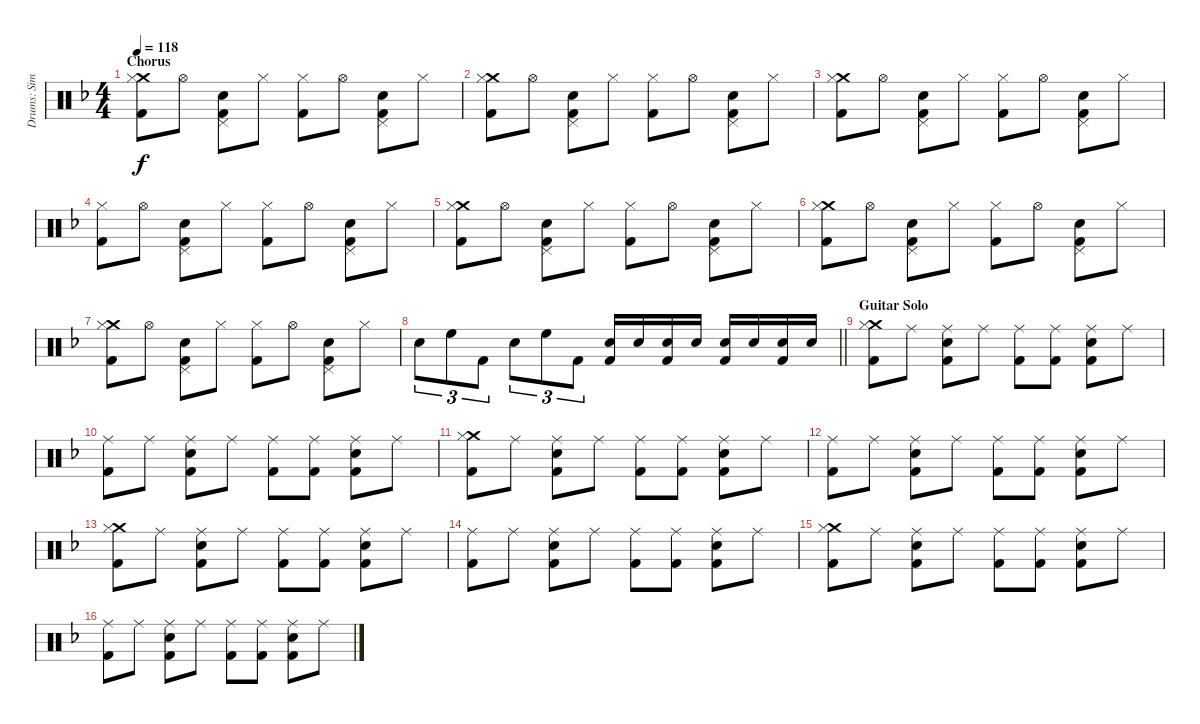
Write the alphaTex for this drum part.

\track ("Drums: Simon Kirke" "Drums: Sim") {instrument percussion}
\staff {score}
\articulation defaults
\ts (4 4)
\section ("" "Chorus")
\tempo 118
\clef neutral
\ks f
("Crash medium (hit)" "Hi-Hat (closed)" "Kick (hit) 2").8{dy f} "Hi-Hat (open)".8 ("Pedal Hi-Hat (hit)" "Snare (hit) 2" "Kick (hit) 2").8 "Hi-Hat (closed)".8 ("Hi-Hat (closed)" "Kick (hit) 2").8 "Hi-Hat (open)".8 ("Pedal Hi-Hat (hit)" "Snare (hit) 2" "Kick (hit) 2").8 "Hi-Hat (closed)".8 |
("Crash medium (hit)" "Hi-Hat (closed)" "Kick (hit) 2").8 "Hi-Hat (open)".8 ("Pedal Hi-Hat (hit)" "Snare (hit) 2" "Kick (hit) 2").8 "Hi-Hat (closed)".8 ("Hi-Hat (closed)" "Kick (hit) 2").8 "Hi-Hat (open)".8 ("Pedal Hi-Hat (hit)" "Snare (hit) 2" "Kick (hit) 2").8 "Hi-Hat (closed)".8 |
("Crash medium (hit)" "Hi-Hat (closed)" "Kick (hit) 2").8 "Hi-Hat (open)".8 ("Pedal Hi-Hat (hit)" "Snare (hit) 2" "Kick (hit) 2").8 "Hi-Hat (closed)".8 ("Hi-Hat (closed)" "Kick (hit) 2").8 "Hi-Hat (open)".8 ("Pedal Hi-Hat (hit)" "Snare (hit) 2" "Kick (hit) 2").8 "Hi-Hat (closed)".8 |
("Hi-Hat (closed)" "Kick (hit) 2").8 "Hi-Hat (open)".8 ("Pedal Hi-Hat (hit)" "Snare (hit) 2" "Kick (hit) 2").8 "Hi-Hat (closed)".8 ("Hi-Hat (closed)" "Kick (hit) 2").8 "Hi-Hat (open)".8 ("Pedal Hi-Hat (hit)" "Snare (hit) 2" "Kick (hit) 2").8 "Hi-Hat (closed)".8 |
("Crash medium (hit)" "Hi-Hat (closed)" "Kick (hit) 2").8 "Hi-Hat (open)".8 ("Pedal Hi-Hat (hit)" "Snare (hit) 2" "Kick (hit) 2").8 "Hi-Hat (closed)".8 ("Hi-Hat (closed)" "Kick (hit) 2").8 "Hi-Hat (open)".8 ("Pedal Hi-Hat (hit)" "Snare (hit) 2" "Kick (hit) 2").8 "Hi-Hat (closed)".8 |
("Crash medium (hit)" "Hi-Hat (closed)" "Kick (hit) 2").8 "Hi-Hat (open)".8 ("Pedal Hi-Hat (hit)" "Snare (hit) 2" "Kick (hit) 2").8 "Hi-Hat (closed)".8 ("Hi-Hat (closed)" "Kick (hit) 2").8 "Hi-Hat (open)".8 ("Pedal Hi-Hat (hit)" "Snare (hit) 2" "Kick (hit) 2").8 "Hi-Hat (closed)".8 |
("Crash medium (hit)" "Hi-Hat (closed)" "Kick (hit) 2").8 "Hi-Hat (open)".8 ("Pedal Hi-Hat (hit)" "Snare (hit) 2" "Kick (hit) 2").8 "Hi-Hat (closed)".8 ("Hi-Hat (closed)" "Kick (hit) 2").8 "Hi-Hat (open)".8 ("Pedal Hi-Hat (hit)" "Snare (hit) 2" "Kick (hit) 2").8 "Hi-Hat (closed)".8 |
\barLineRight lightlight "Snare (hit) 2".8{tu (3 2)} "High Floor Tom (hit)".8{tu (3 2)} "Kick (hit) 2".8{tu (3 2)} "Snare (hit) 2".8{tu (3 2)} "High Floor Tom (hit)".8{tu (3 2)} "Kick (hit) 2".8{tu (3 2)}
("Snare (hit) 2" "Kick (hit) 2").16 "Snare (hit) 2".16 ("Snare (hit) 2" "Kick (hit) 2").16 "Snare (hit) 2".16 ("Snare (hit) 2" "Kick (hit) 2").16 "Snare (hit) 2".16 ("Snare (hit) 2" "Kick (hit) 2").16 "Snare (hit) 2".16 |
\section ("" "Guitar Solo")
("Crash medium (hit)" "Hi-Hat (closed)" "Kick (hit) 2").8 "Ride (middle)".8 ("Ride (middle)" "Snare (hit) 2" "Kick (hit) 2").8 "Ride (middle)".8 ("Ride (middle)" "Kick (hit) 2").8 ("Ride (middle)" "Kick (hit) 2").8 ("Ride (middle)" "Snare (hit) 2" "Kick (hit) 2").8 "Ride (middle)".8 |
("Ride (middle)" "Kick (hit) 2").8 "Ride (middle)".8 ("Ride (middle)" "Snare (hit) 2" "Kick (hit) 2").8 "Ride (middle)".8 ("Ride (middle)" "Kick (hit) 2").8 ("Ride (middle)" "Kick (hit) 2").8 ("Ride (middle)" "Snare (hit) 2" "Kick (hit) 2").8 "Ride (middle)".8 |
("Crash medium (hit)" "Hi-Hat (closed)" "Kick (hit) 2").8 "Ride (middle)".8 ("Ride (middle)" "Snare (hit) 2" "Kick (hit) 2").8 "Ride (middle)".8 ("Ride (middle)" "Kick (hit) 2").8 ("Ride (middle)" "Kick (hit) 2").8 ("Ride (middle)" "Snare (hit) 2" "Kick (hit) 2").8 "Ride (middle)".8 |
("Ride (middle)" "Kick (hit) 2").8 "Ride (middle)".8 ("Ride (middle)" "Snare (hit) 2" "Kick (hit) 2").8 "Ride (middle)".8 ("Ride (middle)" "Kick (hit) 2").8 ("Ride (middle)" "Kick (hit) 2").8 ("Ride (middle)" "Snare (hit) 2" "Kick (hit) 2").8 "Ride (middle)".8 |
("Crash medium (hit)" "Hi-Hat (closed)" "Kick (hit) 2").8 "Ride (middle)".8 ("Ride (middle)" "Snare (hit) 2" "Kick (hit) 2").8 "Ride (middle)".8 ("Ride (middle)" "Kick (hit) 2").8 ("Ride (middle)" "Kick (hit) 2").8 ("Ride (middle)" "Snare (hit) 2" "Kick (hit) 2").8 "Ride (middle)".8 |
("Ride (middle)" "Kick (hit) 2").8 "Ride (middle)".8 ("Ride (middle)" "Snare (hit) 2" "Kick (hit) 2").8 "Ride (middle)".8 ("Ride (middle)" "Kick (hit) 2").8 ("Ride (middle)" "Kick (hit) 2").8 ("Ride (middle)" "Snare (hit) 2" "Kick (hit) 2").8 "Ride (middle)".8 |
("Crash medium (hit)" "Hi-Hat (closed)" "Kick (hit) 2").8 "Ride (middle)".8 ("Ride (middle)" "Snare (hit) 2" "Kick (hit) 2").8 "Ride (middle)".8 ("Ride (middle)" "Kick (hit) 2").8 ("Ride (middle)" "Kick (hit) 2").8 ("Ride (middle)" "Snare (hit) 2" "Kick (hit) 2").8 "Ride (middle)".8 |
("Ride (middle)" "Kick (hit) 2").8 "Ride (middle)".8 ("Ride (middle)" "Snare (hit) 2" "Kick (hit) 2").8 "Ride (middle)".8 ("Ride (middle)" "Kick (hit) 2").8 ("Ride (middle)" "Kick (hit) 2").8 ("Ride (middle)" "Snare (hit) 2" "Kick (hit) 2").8 "Ride (middle)".8
